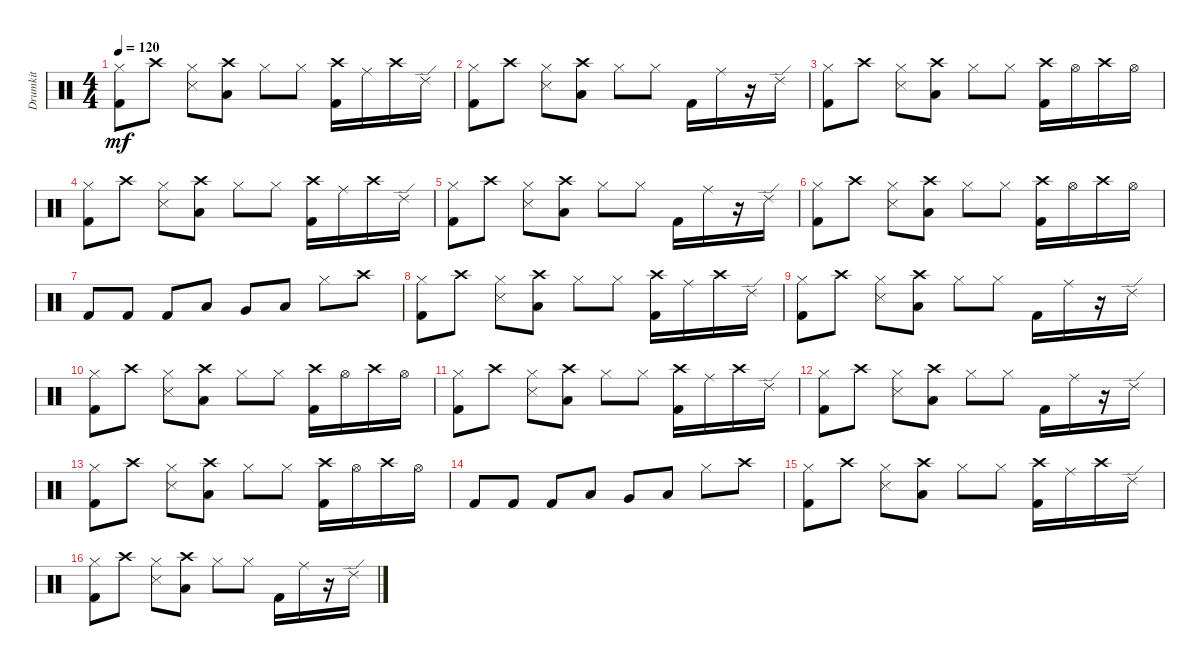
\track ("Drumkit" "Drumkit") {instrument percussion}
\staff {score}
\articulation defaults
\ts (4 4)
\tempo 120
\clef neutral
\ks c
("Hi-Hat (closed)" "Kick (hit) 2").8{dy mf} "Crash high (hit)".8 ("Hi-Hat (closed)" "Snare (side stick) 3").8 ("Crash high (hit)" "Low Floor Tom (hit)").8 "Hi-Hat (closed)".8 "Hi-Hat (closed)".8 ("Crash high (hit)" "Kick (hit) 2").16 "Ride (middle)".16 "Crash high (hit)".16 "Ride (edge) 2".16 |
("Hi-Hat (closed)" "Kick (hit) 2").8 "Crash high (hit)".8 ("Hi-Hat (closed)" "Snare (side stick) 3").8 ("Crash high (hit)" "Low Floor Tom (hit)").8 "Hi-Hat (closed)".8 "Hi-Hat (closed)".8 "Kick (hit) 2".16 "Ride (middle)".16 r.16 "Ride (edge) 2".16 |
("Hi-Hat (closed)" "Kick (hit) 2").8 "Crash high (hit)".8 ("Hi-Hat (closed)" "Snare (side stick) 3").8 ("Crash high (hit)" "Low Floor Tom (hit)").8 "Hi-Hat (closed)".8 "Hi-Hat (closed)".8 ("Crash high (hit)" "Kick (hit) 2").16 "Hi-Hat (open)".16 "Crash high (hit)".16 "Hi-Hat (open)".16 |
("Hi-Hat (closed)" "Kick (hit) 2").8 "Crash high (hit)".8 ("Hi-Hat (closed)" "Snare (side stick) 3").8 ("Crash high (hit)" "Low Floor Tom (hit)").8 "Hi-Hat (closed)".8 "Hi-Hat (closed)".8 ("Crash high (hit)" "Kick (hit) 2").16 "Ride (middle)".16 "Crash high (hit)".16 "Ride (edge) 2".16 |
("Hi-Hat (closed)" "Kick (hit) 2").8 "Crash high (hit)".8 ("Hi-Hat (closed)" "Snare (side stick) 3").8 ("Crash high (hit)" "Low Floor Tom (hit)").8 "Hi-Hat (closed)".8 "Hi-Hat (closed)".8 "Kick (hit) 2".16 "Ride (middle)".16 r.16 "Ride (edge) 2".16 |
("Hi-Hat (closed)" "Kick (hit) 2").8 "Crash high (hit)".8 ("Hi-Hat (closed)" "Snare (side stick) 3").8 ("Crash high (hit)" "Low Floor Tom (hit)").8 "Hi-Hat (closed)".8 "Hi-Hat (closed)".8 ("Crash high (hit)" "Kick (hit) 2").16 "Hi-Hat (open)".16 "Crash high (hit)".16 "Hi-Hat (open)".16 |
"Kick (hit) 2".8 "Kick (hit) 2".8 "Kick (hit) 2".8 "Low Floor Tom (hit)".8 "Very Low Tom (hit)".8 "Low Tom (hit)".8 "Hi-Hat (closed)".8 "Crash high (hit)".8 |
("Hi-Hat (closed)" "Kick (hit) 2").8 "Crash high (hit)".8 ("Hi-Hat (closed)" "Snare (side stick) 3").8 ("Crash high (hit)" "Low Floor Tom (hit)").8 "Hi-Hat (closed)".8 "Hi-Hat (closed)".8 ("Crash high (hit)" "Kick (hit) 2").16 "Ride (middle)".16 "Crash high (hit)".16 "Ride (edge) 2".16 |
("Hi-Hat (closed)" "Kick (hit) 2").8 "Crash high (hit)".8 ("Hi-Hat (closed)" "Snare (side stick) 3").8 ("Crash high (hit)" "Low Floor Tom (hit)").8 "Hi-Hat (closed)".8 "Hi-Hat (closed)".8 "Kick (hit) 2".16 "Ride (middle)".16 r.16 "Ride (edge) 2".16 |
("Hi-Hat (closed)" "Kick (hit) 2").8 "Crash high (hit)".8 ("Hi-Hat (closed)" "Snare (side stick) 3").8 ("Crash high (hit)" "Low Floor Tom (hit)").8 "Hi-Hat (closed)".8 "Hi-Hat (closed)".8 ("Crash high (hit)" "Kick (hit) 2").16 "Hi-Hat (open)".16 "Crash high (hit)".16 "Hi-Hat (open)".16 |
("Hi-Hat (closed)" "Kick (hit) 2").8 "Crash high (hit)".8 ("Hi-Hat (closed)" "Snare (side stick) 3").8 ("Crash high (hit)" "Low Floor Tom (hit)").8 "Hi-Hat (closed)".8 "Hi-Hat (closed)".8 ("Crash high (hit)" "Kick (hit) 2").16 "Ride (middle)".16 "Crash high (hit)".16 "Ride (edge) 2".16 |
("Hi-Hat (closed)" "Kick (hit) 2").8 "Crash high (hit)".8 ("Hi-Hat (closed)" "Snare (side stick) 3").8 ("Crash high (hit)" "Low Floor Tom (hit)").8 "Hi-Hat (closed)".8 "Hi-Hat (closed)".8 "Kick (hit) 2".16 "Ride (middle)".16 r.16 "Ride (edge) 2".16 |
("Hi-Hat (closed)" "Kick (hit) 2").8 "Crash high (hit)".8 ("Hi-Hat (closed)" "Snare (side stick) 3").8 ("Crash high (hit)" "Low Floor Tom (hit)").8 "Hi-Hat (closed)".8 "Hi-Hat (closed)".8 ("Crash high (hit)" "Kick (hit) 2").16 "Hi-Hat (open)".16 "Crash high (hit)".16 "Hi-Hat (open)".16 |
"Kick (hit) 2".8 "Kick (hit) 2".8 "Kick (hit) 2".8 "Low Floor Tom (hit)".8 "Very Low Tom (hit)".8 "Low Tom (hit)".8 "Hi-Hat (closed)".8 "Crash high (hit)".8 |
("Hi-Hat (closed)" "Kick (hit) 2").8 "Crash high (hit)".8 ("Hi-Hat (closed)" "Snare (side stick) 3").8 ("Crash high (hit)" "Low Floor Tom (hit)").8 "Hi-Hat (closed)".8 "Hi-Hat (closed)".8 ("Crash high (hit)" "Kick (hit) 2").16 "Ride (middle)".16 "Crash high (hit)".16 "Ride (edge) 2".16 |
("Hi-Hat (closed)" "Kick (hit) 2").8 "Crash high (hit)".8 ("Hi-Hat (closed)" "Snare (side stick) 3").8 ("Crash high (hit)" "Low Floor Tom (hit)").8 "Hi-Hat (closed)".8 "Hi-Hat (closed)".8 "Kick (hit) 2".16 "Ride (middle)".16 r.16 "Ride (edge) 2".16
